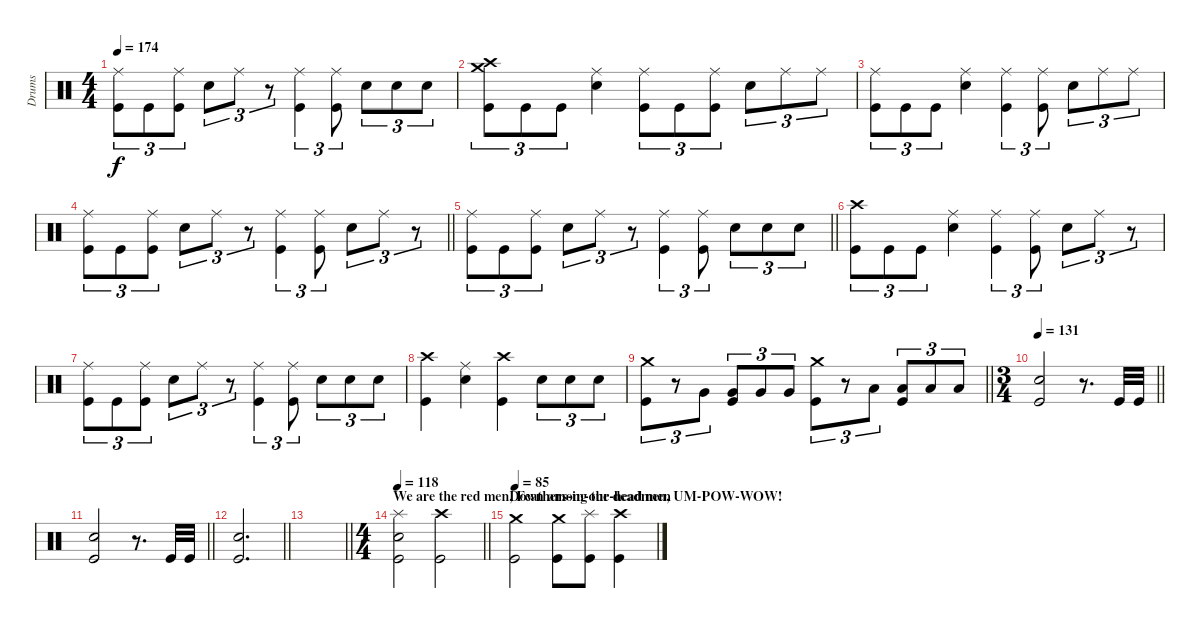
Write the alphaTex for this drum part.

\track ("Drums" "Drums") {instrument percussion}
\staff {score}
\articulation defaults
\ts (4 4)
\tempo 174
\clef neutral
\ks c
("Ride (middle)" "Kick (hit)").8{tu (3 2) dy f} "Kick (hit)".8{tu (3 2)} ("Ride (middle)" "Kick (hit)").8{tu (3 2)} "Snare (hit) 2".8{tu (3 2)} "Ride (middle)".8{tu (3 2)} r.8{tu (3 2)} ("Ride (middle)" "Kick (hit)").4{tu (3 2)} ("Ride (middle)" "Kick (hit)").8{tu (3 2)} "Snare (hit) 2".8{tu (3 2)} "Snare (hit) 2".8{tu (3 2)} "Snare (hit) 2".8{tu (3 2)} |
("Crash medium (hit)" "Crash high (hit)" "Kick (hit)").8{tu (3 2)} "Kick (hit)".8{tu (3 2)} "Kick (hit)".8{tu (3 2)} ("Ride (middle)" "Snare (hit) 2").4 ("Ride (middle)" "Kick (hit)").8{tu (3 2)} "Kick (hit)".8{tu (3 2)} ("Ride (middle)" "Kick (hit)").8{tu (3 2)} "Snare (hit) 2".8{tu (3 2)} "Ride (middle)".8{tu (3 2)} "Ride (middle)".8{tu (3 2)} |
("Ride (middle)" "Kick (hit)").8{tu (3 2)} "Kick (hit)".8{tu (3 2)} "Kick (hit)".8{tu (3 2)} ("Ride (middle)" "Snare (hit) 2").4 ("Ride (middle)" "Kick (hit)").4{tu (3 2)} ("Ride (middle)" "Kick (hit)").8{tu (3 2)} "Snare (hit) 2".8{tu (3 2)} "Ride (middle)".8{tu (3 2)} "Ride (middle)".8{tu (3 2)} |
\barLineRight lightlight
("Ride (middle)" "Kick (hit)").8{tu (3 2)} "Kick (hit)".8{tu (3 2)} ("Ride (middle)" "Kick (hit)").8{tu (3 2)} "Snare (hit) 2".8{tu (3 2)} "Ride (middle)".8{tu (3 2)} r.8{tu (3 2)} ("Ride (middle)" "Kick (hit)").4{tu (3 2)} ("Ride (middle)" "Kick (hit)").8{tu (3 2)} "Snare (hit) 2".8{tu (3 2)} "Ride (middle)".8{tu (3 2)} r.8{tu (3 2)} |
\barLineRight lightlight
("Ride (middle)" "Kick (hit)").8{tu (3 2)} "Kick (hit)".8{tu (3 2)} ("Ride (middle)" "Kick (hit)").8{tu (3 2)} "Snare (hit) 2".8{tu (3 2)} "Ride (middle)".8{tu (3 2)} r.8{tu (3 2)} ("Ride (middle)" "Kick (hit)").4{tu (3 2)} ("Ride (middle)" "Kick (hit)").8{tu (3 2)} "Snare (hit) 2".8{tu (3 2)} "Snare (hit) 2".8{tu (3 2)} "Snare (hit) 2".8{tu (3 2)} |
("Crash high (hit)" "Kick (hit)").8{tu (3 2)} "Kick (hit)".8{tu (3 2)} "Kick (hit)".8{tu (3 2)} ("Ride (middle)" "Snare (hit) 2").4 ("Ride (middle)" "Kick (hit)").4{tu (3 2)} ("Ride (middle)" "Kick (hit)").8{tu (3 2)} "Snare (hit) 2".8{tu (3 2)} "Ride (middle)".8{tu (3 2)} r.8{tu (3 2)} |
("Ride (middle)" "Kick (hit)").8{tu (3 2)} "Kick (hit)".8{tu (3 2)} ("Ride (middle)" "Kick (hit)").8{tu (3 2)} "Snare (hit) 2".8{tu (3 2)} "Ride (middle)".8{tu (3 2)} r.8{tu (3 2)} ("Ride (middle)" "Kick (hit)").4{tu (3 2)} ("Ride (middle)" "Kick (hit)").8{tu (3 2)} "Snare (hit) 2".8{tu (3 2)} "Snare (hit) 2".8{tu (3 2)} "Snare (hit) 2".8{tu (3 2)} |
("Crash high (hit)" "Kick (hit)").4 ("Ride (middle)" "Snare (hit) 2").4 ("Crash high (hit)" "Kick (hit)").4 "Snare (hit) 2".8{tu (3 2)} "Snare (hit) 2".8{tu (3 2)} "Snare (hit) 2".8{tu (3 2)} |
\barLineRight lightlight
("Crash medium (hit)" "Kick (hit)").8{tu (3 2)} r.8{tu (3 2)} "Very Low Tom (hit)".8{tu (3 2)} ("Very Low Tom (hit)" "Kick (hit)").8{tu (3 2)} "Very Low Tom (hit)".8{tu (3 2)} "Very Low Tom (hit)".8{tu (3 2)} ("Crash medium (hit)" "Kick (hit)").8{tu (3 2)} r.8{tu (3 2)} "Low Floor Tom (hit)".8{tu (3 2)} ("Low Floor Tom (hit)" "Kick (hit)").8{tu (3 2)} "Low Floor Tom (hit)".8{tu (3 2)} "Low Floor Tom (hit)".8{tu (3 2)} |
\ts (3 4)
\tempo 131
\barLineRight lightlight
("Snare (hit) 2" "Kick (hit)").2 r.8{d} "Kick (hit)".32 "Kick (hit)".32 |
\barLineRight lightlight
("Snare (hit) 2" "Kick (hit)").2 r.8{d} "Kick (hit)".32 "Kick (hit)".32 |
\barLineRight lightlight
("Snare (hit) 2" "Kick (hit)").2{d} |
\barLineRight lightlight
|
\ts (4 4)
\section ("" "We are the red men, Feathers-in-our-head men ")
\tempo 118
\barLineRight lightlight
("Splash (hit)" "Snare (hit) 2" "Kick (hit)").2 ("Crash high (hit)" "Kick (hit)").2 |
\section ("" "Down among the deadmen, UM-POW-WOW! ")
\tempo 85
("Crash medium (hit)" "Kick (hit)").2 ("Crash medium (hit)" "Kick (hit)").8 ("Splash (hit)" "Kick (hit)").8 ("Crash high (hit)" "Kick (hit)").4
